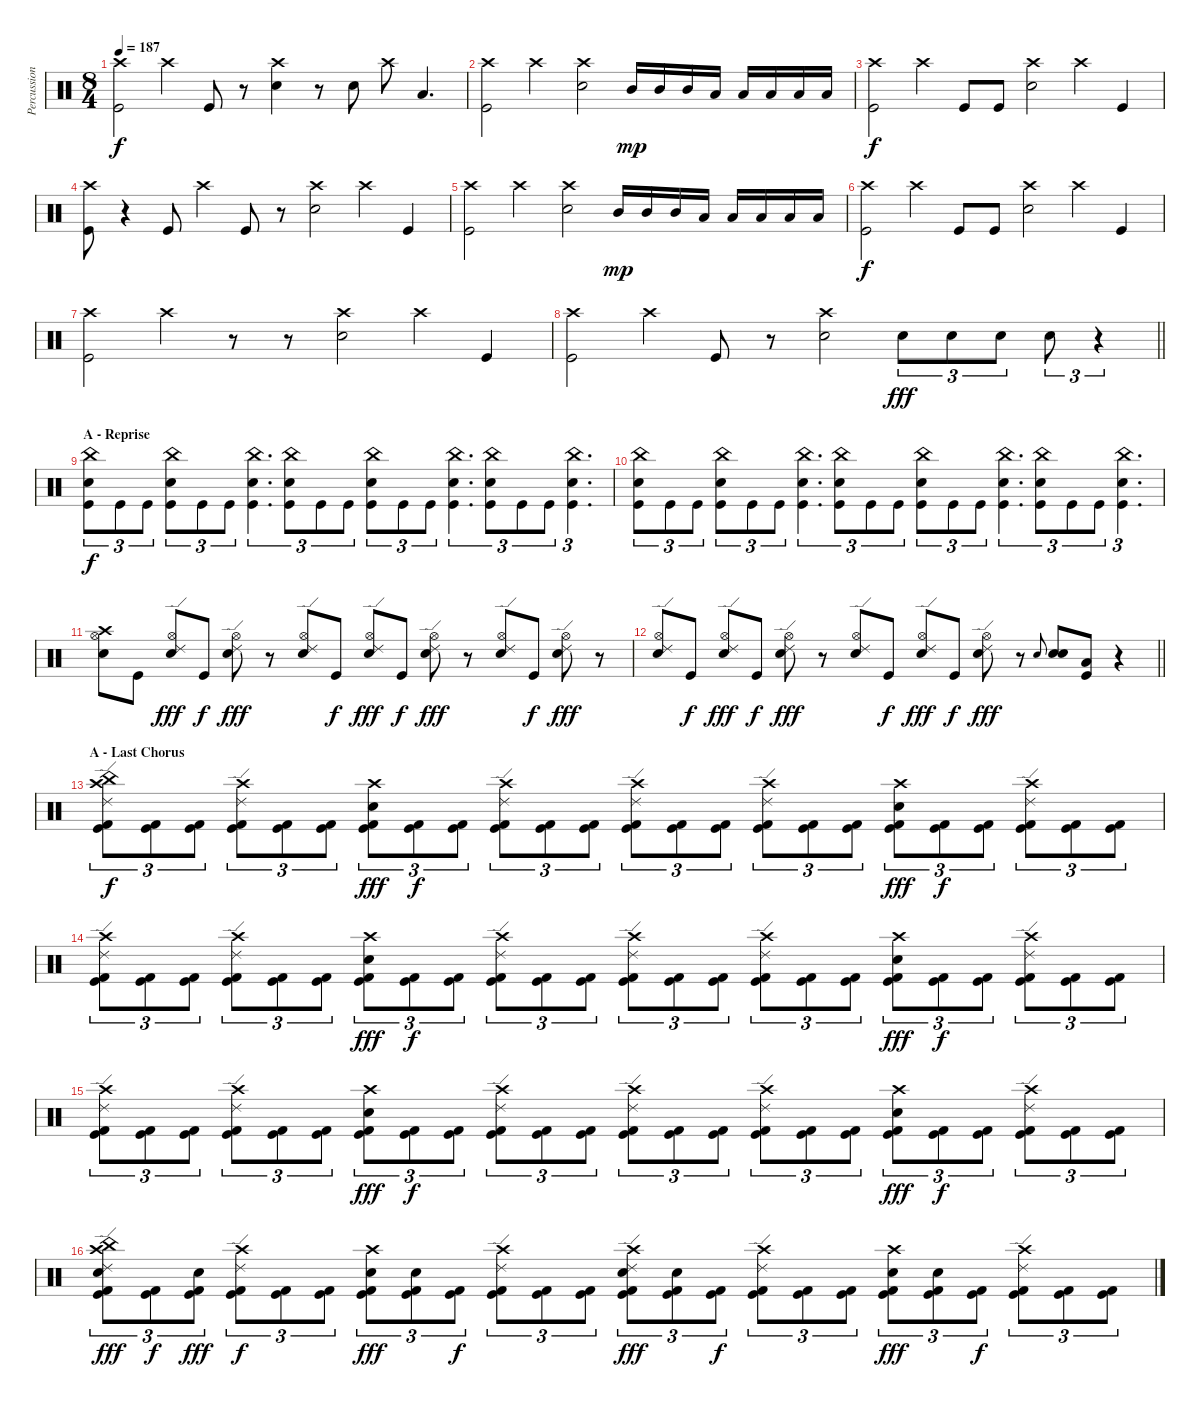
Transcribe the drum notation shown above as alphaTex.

\track ("Percussions" "Percussion") {instrument percussion}
\staff {score}
\articulation defaults
\ts (8 4)
\tempo 187
\clef neutral
\ks c
("Crash high (hit)" "Kick (hit)").2{dy f} "Crash high (hit)".4 "Kick (hit)".8 r.8 ("Crash high (hit)" "Snare (hit) 2").4 r.8 "Snare (hit) 2".8 "Crash high (hit)".8 "Low Tom (hit)".4{d} |
("Crash high (hit)" "Kick (hit)").2 "Crash high (hit)".2 ("Crash high (hit)" "Snare (hit) 2").2 "Mid Tom (hit)".16{dy mp} "Mid Tom (hit)".16 "Mid Tom (hit)".16 "Low Tom (hit)".16 "Low Tom (hit)".16 "Low Tom (hit)".16 "Low Floor Tom (hit)".16 "Low Floor Tom (hit)".16 |
("Crash high (hit)" "Kick (hit)").2{dy f} "Crash high (hit)".4 "Kick (hit)".8 "Kick (hit)".8 ("Crash high (hit)" "Snare (hit) 2").2 "Crash high (hit)".4 "Kick (hit)".4 |
("Crash high (hit)" "Kick (hit)").8 r.4 "Kick (hit)".8 "Crash high (hit)".4 "Kick (hit)".8 r.8 ("Crash high (hit)" "Snare (hit) 2").2 "Crash high (hit)".4 "Kick (hit)".4 |
("Crash high (hit)" "Kick (hit)").2 "Crash high (hit)".2 ("Crash high (hit)" "Snare (hit) 2").2 "Mid Tom (hit)".16{dy mp} "Mid Tom (hit)".16 "Mid Tom (hit)".16 "Low Tom (hit)".16 "Low Tom (hit)".16 "Low Tom (hit)".16 "Low Floor Tom (hit)".16 "Low Floor Tom (hit)".16 |
("Crash high (hit)" "Kick (hit)").2{dy f} "Crash high (hit)".4 "Kick (hit)".8 "Kick (hit)".8 ("Crash high (hit)" "Snare (hit) 2").2 "Crash high (hit)".4 "Kick (hit)".4 |
("Crash high (hit)" "Kick (hit)").2 "Crash high (hit)".4 r.8 r.8 ("Crash high (hit)" "Snare (hit) 2").2 "Crash high (hit)".4 "Kick (hit)".4 |
\barLineRight lightlight
("Crash high (hit)" "Kick (hit)").2 "Crash high (hit)".4 "Kick (hit)".8 r.8 ("Crash high (hit)" "Snare (hit) 2").2 "Snare (hit) 2".8{tu (3 2) dy fff} "Snare (hit) 2".8{tu (3 2)} "Snare (hit) 2".8{tu (3 2)} "Snare (hit) 2".8{tu (3 2)} r.4{tu (3 2)} |
\section ("" "A - Reprise")
("China (hit)" "Snare (hit) 2" "Kick (hit)").8{tu (3 2) dy f} "Kick (hit)".8{tu (3 2)} "Kick (hit)".8{tu (3 2)} ("China (hit)" "Snare (hit) 2" "Kick (hit)").8{tu (3 2)} "Kick (hit)".8{tu (3 2)} "Kick (hit)".8{tu (3 2)} ("China (hit)" "Snare (hit) 2" "Kick (hit)").4{d tu (3 2)} ("China (hit)" "Snare (hit) 2" "Kick (hit)").8{tu (3 2)} "Kick (hit)".8{tu (3 2)} "Kick (hit)".8{tu (3 2)} ("China (hit)" "Snare (hit) 2" "Kick (hit)").8{tu (3 2)} "Kick (hit)".8{tu (3 2)} "Kick (hit)".8{tu (3 2)} ("China (hit)" "Snare (hit) 2" "Kick (hit)").4{d tu (3 2)} ("China (hit)" "Snare (hit) 2" "Kick (hit)").8{tu (3 2)} "Kick (hit)".8{tu (3 2)} "Kick (hit)".8{tu (3 2)} ("China (hit)" "Snare (hit) 2" "Kick (hit)").4{d tu (3 2)} |
("China (hit)" "Snare (hit) 2" "Kick (hit)").8{tu (3 2)} "Kick (hit)".8{tu (3 2)} "Kick (hit)".8{tu (3 2)} ("China (hit)" "Snare (hit) 2" "Kick (hit)").8{tu (3 2)} "Kick (hit)".8{tu (3 2)} "Kick (hit)".8{tu (3 2)} ("China (hit)" "Snare (hit) 2" "Kick (hit)").4{d tu (3 2)} ("China (hit)" "Snare (hit) 2" "Kick (hit)").8{tu (3 2)} "Kick (hit)".8{tu (3 2)} "Kick (hit)".8{tu (3 2)} ("China (hit)" "Snare (hit) 2" "Kick (hit)").8{tu (3 2)} "Kick (hit)".8{tu (3 2)} "Kick (hit)".8{tu (3 2)} ("China (hit)" "Snare (hit) 2" "Kick (hit)").4{d tu (3 2)} ("China (hit)" "Snare (hit) 2" "Kick (hit)").8{tu (3 2)} "Kick (hit)".8{tu (3 2)} "Kick (hit)".8{tu (3 2)} ("China (hit)" "Snare (hit) 2" "Kick (hit)").4{d tu (3 2)} |
("Crash high (hit)" "Hi-Hat (open)" "Snare (hit) 2").8 "Kick (hit)".8 ("Ride (edge) 2" "Hi-Hat (open)" "Snare (hit) 2").8{dy fff} "Kick (hit)".8{dy f} ("Ride (edge) 2" "Hi-Hat (open)" "Snare (hit) 2").8{dy fff} r.8 ("Ride (edge) 2" "Hi-Hat (open)" "Snare (hit) 2").8 "Kick (hit)".8{dy f} ("Ride (edge) 2" "Hi-Hat (open)" "Snare (hit) 2").8{dy fff} "Kick (hit)".8{dy f} ("Ride (edge) 2" "Hi-Hat (open)" "Snare (hit) 2").8{dy fff} r.8 ("Ride (edge) 2" "Hi-Hat (open)" "Snare (hit) 2").8 "Kick (hit)".8{dy f} ("Ride (edge) 2" "Hi-Hat (open)" "Snare (hit) 2").8{dy fff} r.8 |
\barLineRight lightlight
("Ride (edge) 2" "Hi-Hat (open)" "Snare (hit) 2").8 "Kick (hit)".8{dy f} ("Ride (edge) 2" "Hi-Hat (open)" "Snare (hit) 2").8{dy fff} "Kick (hit)".8{dy f} ("Ride (edge) 2" "Hi-Hat (open)" "Snare (hit) 2").8{dy fff} r.8 ("Ride (edge) 2" "Hi-Hat (open)" "Snare (hit) 2").8 "Kick (hit)".8{dy f} ("Ride (edge) 2" "Hi-Hat (open)" "Snare (hit) 2").8{dy fff} "Kick (hit)".8{dy f} ("Ride (edge) 2" "Hi-Hat (open)" "Snare (hit) 2").8{dy fff} r.8 "Snare (hit) 2".8{gr onbeat} ("Snare (hit) 2" "Snare (hit) 2").8 ("Low Tom (hit)" "Kick (hit)").8 r.4 |
\section ("" "A - Last Chorus")
("China (hit)" "Crash high (hit)" "Ride (edge) 2" "Kick (hit)" "Kick (hit) 2").8{tu (3 2) dy f} ("Kick (hit)" "Kick (hit) 2").8{tu (3 2)} ("Kick (hit)" "Kick (hit) 2").8{tu (3 2)} ("Crash high (hit)" "Ride (edge) 2" "Kick (hit)" "Kick (hit) 2").8{tu (3 2)} ("Kick (hit)" "Kick (hit) 2").8{tu (3 2)} ("Kick (hit)" "Kick (hit) 2").8{tu (3 2)} ("Crash high (hit)" "Snare (hit) 2" "Kick (hit)" "Kick (hit) 2").8{tu (3 2) dy fff} ("Kick (hit)" "Kick (hit) 2").8{tu (3 2) dy f} ("Kick (hit)" "Kick (hit) 2").8{tu (3 2)} ("Crash high (hit)" "Ride (edge) 2" "Kick (hit)" "Kick (hit) 2").8{tu (3 2)} ("Kick (hit)" "Kick (hit) 2").8{tu (3 2)} ("Kick (hit)" "Kick (hit) 2").8{tu (3 2)} ("Crash high (hit)" "Ride (edge) 2" "Kick (hit)" "Kick (hit) 2").8{tu (3 2)} ("Kick (hit)" "Kick (hit) 2").8{tu (3 2)} ("Kick (hit)" "Kick (hit) 2").8{tu (3 2)} ("Crash high (hit)" "Ride (edge) 2" "Kick (hit)" "Kick (hit) 2").8{tu (3 2)} ("Kick (hit)" "Kick (hit) 2").8{tu (3 2)} ("Kick (hit)" "Kick (hit) 2").8{tu (3 2)} ("Crash high (hit)" "Snare (hit) 2" "Kick (hit)" "Kick (hit) 2").8{tu (3 2) dy fff} ("Kick (hit)" "Kick (hit) 2").8{tu (3 2) dy f} ("Kick (hit)" "Kick (hit) 2").8{tu (3 2)} ("Crash high (hit)" "Ride (edge) 2" "Kick (hit)" "Kick (hit) 2").8{tu (3 2)} ("Kick (hit)" "Kick (hit) 2").8{tu (3 2)} ("Kick (hit)" "Kick (hit) 2").8{tu (3 2)} |
("Crash high (hit)" "Ride (edge) 2" "Kick (hit)" "Kick (hit) 2").8{tu (3 2)} ("Kick (hit)" "Kick (hit) 2").8{tu (3 2)} ("Kick (hit)" "Kick (hit) 2").8{tu (3 2)} ("Crash high (hit)" "Ride (edge) 2" "Kick (hit)" "Kick (hit) 2").8{tu (3 2)} ("Kick (hit)" "Kick (hit) 2").8{tu (3 2)} ("Kick (hit)" "Kick (hit) 2").8{tu (3 2)} ("Crash high (hit)" "Snare (hit) 2" "Kick (hit)" "Kick (hit) 2").8{tu (3 2) dy fff} ("Kick (hit)" "Kick (hit) 2").8{tu (3 2) dy f} ("Kick (hit)" "Kick (hit) 2").8{tu (3 2)} ("Crash high (hit)" "Ride (edge) 2" "Kick (hit)" "Kick (hit) 2").8{tu (3 2)} ("Kick (hit)" "Kick (hit) 2").8{tu (3 2)} ("Kick (hit)" "Kick (hit) 2").8{tu (3 2)} ("Crash high (hit)" "Ride (edge) 2" "Kick (hit)" "Kick (hit) 2").8{tu (3 2)} ("Kick (hit)" "Kick (hit) 2").8{tu (3 2)} ("Kick (hit)" "Kick (hit) 2").8{tu (3 2)} ("Crash high (hit)" "Ride (edge) 2" "Kick (hit)" "Kick (hit) 2").8{tu (3 2)} ("Kick (hit)" "Kick (hit) 2").8{tu (3 2)} ("Kick (hit)" "Kick (hit) 2").8{tu (3 2)} ("Crash high (hit)" "Snare (hit) 2" "Kick (hit)" "Kick (hit) 2").8{tu (3 2) dy fff} ("Kick (hit)" "Kick (hit) 2").8{tu (3 2) dy f} ("Kick (hit)" "Kick (hit) 2").8{tu (3 2)} ("Crash high (hit)" "Ride (edge) 2" "Kick (hit)" "Kick (hit) 2").8{tu (3 2)} ("Kick (hit)" "Kick (hit) 2").8{tu (3 2)} ("Kick (hit)" "Kick (hit) 2").8{tu (3 2)} |
("Crash high (hit)" "Ride (edge) 2" "Kick (hit)" "Kick (hit) 2").8{tu (3 2)} ("Kick (hit)" "Kick (hit) 2").8{tu (3 2)} ("Kick (hit)" "Kick (hit) 2").8{tu (3 2)} ("Crash high (hit)" "Ride (edge) 2" "Kick (hit)" "Kick (hit) 2").8{tu (3 2)} ("Kick (hit)" "Kick (hit) 2").8{tu (3 2)} ("Kick (hit)" "Kick (hit) 2").8{tu (3 2)} ("Crash high (hit)" "Snare (hit) 2" "Kick (hit)" "Kick (hit) 2").8{tu (3 2) dy fff} ("Kick (hit)" "Kick (hit) 2").8{tu (3 2) dy f} ("Kick (hit)" "Kick (hit) 2").8{tu (3 2)} ("Crash high (hit)" "Ride (edge) 2" "Kick (hit)" "Kick (hit) 2").8{tu (3 2)} ("Kick (hit)" "Kick (hit) 2").8{tu (3 2)} ("Kick (hit)" "Kick (hit) 2").8{tu (3 2)} ("Crash high (hit)" "Ride (edge) 2" "Kick (hit)" "Kick (hit) 2").8{tu (3 2)} ("Kick (hit)" "Kick (hit) 2").8{tu (3 2)} ("Kick (hit)" "Kick (hit) 2").8{tu (3 2)} ("Crash high (hit)" "Ride (edge) 2" "Kick (hit)" "Kick (hit) 2").8{tu (3 2)} ("Kick (hit)" "Kick (hit) 2").8{tu (3 2)} ("Kick (hit)" "Kick (hit) 2").8{tu (3 2)} ("Crash high (hit)" "Snare (hit) 2" "Kick (hit)" "Kick (hit) 2").8{tu (3 2) dy fff} ("Kick (hit)" "Kick (hit) 2").8{tu (3 2) dy f} ("Kick (hit)" "Kick (hit) 2").8{tu (3 2)} ("Crash high (hit)" "Ride (edge) 2" "Kick (hit)" "Kick (hit) 2").8{tu (3 2)} ("Kick (hit)" "Kick (hit) 2").8{tu (3 2)} ("Kick (hit)" "Kick (hit) 2").8{tu (3 2)} |
("China (hit)" "Crash high (hit)" "Ride (edge) 2" "Snare (hit) 2" "Kick (hit)" "Kick (hit) 2").8{tu (3 2) dy fff} ("Kick (hit)" "Kick (hit) 2").8{tu (3 2) dy f} ("Snare (hit) 2" "Kick (hit)" "Kick (hit) 2").8{tu (3 2) dy fff} ("Crash high (hit)" "Ride (edge) 2" "Kick (hit)" "Kick (hit) 2").8{tu (3 2) dy f} ("Kick (hit)" "Kick (hit) 2").8{tu (3 2)} ("Kick (hit)" "Kick (hit) 2").8{tu (3 2)} ("Crash high (hit)" "Snare (hit) 2" "Kick (hit)" "Kick (hit) 2").8{tu (3 2) dy fff} ("Snare (hit) 2" "Kick (hit)" "Kick (hit) 2").8{tu (3 2)} ("Kick (hit)" "Kick (hit) 2").8{tu (3 2) dy f} ("Crash high (hit)" "Ride (edge) 2" "Kick (hit)" "Kick (hit) 2").8{tu (3 2)} ("Kick (hit)" "Kick (hit) 2").8{tu (3 2)} ("Kick (hit)" "Kick (hit) 2").8{tu (3 2)} ("Crash high (hit)" "Ride (edge) 2" "Snare (hit) 2" "Kick (hit)" "Kick (hit) 2").8{tu (3 2) dy fff} ("Snare (hit) 2" "Kick (hit)" "Kick (hit) 2").8{tu (3 2)} ("Kick (hit)" "Kick (hit) 2").8{tu (3 2) dy f} ("Crash high (hit)" "Ride (edge) 2" "Kick (hit)" "Kick (hit) 2").8{tu (3 2)} ("Kick (hit)" "Kick (hit) 2").8{tu (3 2)} ("Kick (hit)" "Kick (hit) 2").8{tu (3 2)} ("Crash high (hit)" "Snare (hit) 2" "Kick (hit)" "Kick (hit) 2").8{tu (3 2) dy fff} ("Snare (hit) 2" "Kick (hit)" "Kick (hit) 2").8{tu (3 2)} ("Kick (hit)" "Kick (hit) 2").8{tu (3 2) dy f} ("Crash high (hit)" "Ride (edge) 2" "Kick (hit)" "Kick (hit) 2").8{tu (3 2)} ("Kick (hit)" "Kick (hit) 2").8{tu (3 2)} ("Kick (hit)" "Kick (hit) 2").8{tu (3 2)}
